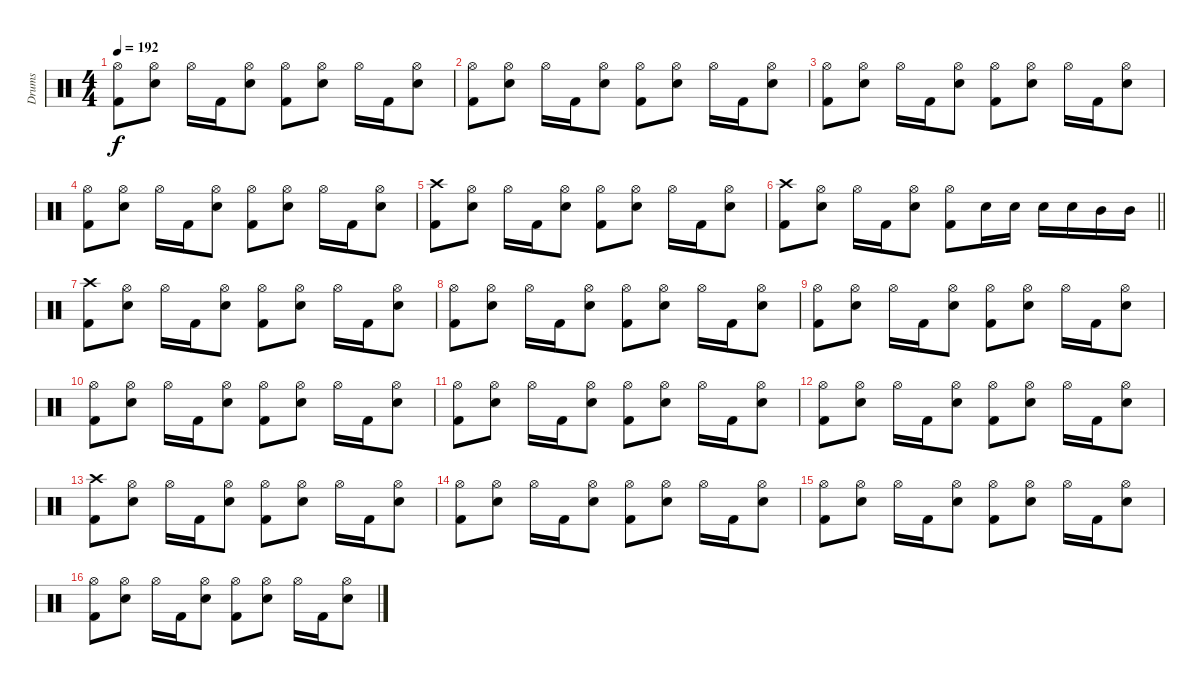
\track ("Drums" "Drums") {instrument percussion}
\staff {score}
\articulation defaults
\ts (4 4)
\tempo 192
\clef neutral
\ks c
("Hi-Hat (open)" "Kick (hit) 2").8{dy f} ("Hi-Hat (open)" "Snare (hit) 2").8 "Hi-Hat (open)".16 "Kick (hit) 2".16 ("Hi-Hat (open)" "Snare (hit) 2").8 ("Hi-Hat (open)" "Kick (hit) 2").8 ("Hi-Hat (open)" "Snare (hit) 2").8 "Hi-Hat (open)".16 "Kick (hit) 2".16 ("Hi-Hat (open)" "Snare (hit) 2").8 |
("Hi-Hat (open)" "Kick (hit) 2").8 ("Hi-Hat (open)" "Snare (hit) 2").8 "Hi-Hat (open)".16 "Kick (hit) 2".16 ("Hi-Hat (open)" "Snare (hit) 2").8 ("Hi-Hat (open)" "Kick (hit) 2").8 ("Hi-Hat (open)" "Snare (hit) 2").8 "Hi-Hat (open)".16 "Kick (hit) 2".16 ("Hi-Hat (open)" "Snare (hit) 2").8 |
("Hi-Hat (open)" "Kick (hit) 2").8 ("Hi-Hat (open)" "Snare (hit) 2").8 "Hi-Hat (open)".16 "Kick (hit) 2".16 ("Hi-Hat (open)" "Snare (hit) 2").8 ("Hi-Hat (open)" "Kick (hit) 2").8 ("Hi-Hat (open)" "Snare (hit) 2").8 "Hi-Hat (open)".16 "Kick (hit) 2".16 ("Hi-Hat (open)" "Snare (hit) 2").8 |
("Hi-Hat (open)" "Kick (hit) 2").8 ("Hi-Hat (open)" "Snare (hit) 2").8 "Hi-Hat (open)".16 "Kick (hit) 2".16 ("Hi-Hat (open)" "Snare (hit) 2").8 ("Hi-Hat (open)" "Kick (hit) 2").8 ("Hi-Hat (open)" "Snare (hit) 2").8 "Hi-Hat (open)".16 "Kick (hit) 2".16 ("Hi-Hat (open)" "Snare (hit) 2").8 |
("Crash high (hit)" "Kick (hit) 2").8 ("Hi-Hat (open)" "Snare (hit) 2").8 "Hi-Hat (open)".16 "Kick (hit) 2".16 ("Hi-Hat (open)" "Snare (hit) 2").8 ("Hi-Hat (open)" "Kick (hit) 2").8 ("Hi-Hat (open)" "Snare (hit) 2").8 "Hi-Hat (open)".16 "Kick (hit) 2".16 ("Hi-Hat (open)" "Snare (hit) 2").8 |
\barLineRight lightlight
("Crash high (hit)" "Kick (hit) 2").8 ("Hi-Hat (open)" "Snare (hit) 2").8 "Hi-Hat (open)".16 "Kick (hit) 2".16 ("Hi-Hat (open)" "Snare (hit) 2").8 ("Hi-Hat (open)" "Kick (hit) 2").8 "Snare (hit) 2".16 "Snare (hit) 2".16 "Snare (hit) 2".16 "Snare (hit) 2".16 "Mid Tom (hit)".16 "Mid Tom (hit)".16 |
("Crash high (hit)" "Kick (hit) 2").8 ("Hi-Hat (open)" "Snare (hit) 2").8 "Hi-Hat (open)".16 "Kick (hit) 2".16 ("Hi-Hat (open)" "Snare (hit) 2").8 ("Hi-Hat (open)" "Kick (hit) 2").8 ("Hi-Hat (open)" "Snare (hit) 2").8 "Hi-Hat (open)".16 "Kick (hit) 2".16 ("Hi-Hat (open)" "Snare (hit) 2").8 |
("Hi-Hat (open)" "Kick (hit) 2").8 ("Hi-Hat (open)" "Snare (hit) 2").8 "Hi-Hat (open)".16 "Kick (hit) 2".16 ("Hi-Hat (open)" "Snare (hit) 2").8 ("Hi-Hat (open)" "Kick (hit) 2").8 ("Hi-Hat (open)" "Snare (hit) 2").8 "Hi-Hat (open)".16 "Kick (hit) 2".16 ("Hi-Hat (open)" "Snare (hit) 2").8 |
("Hi-Hat (open)" "Kick (hit) 2").8 ("Hi-Hat (open)" "Snare (hit) 2").8 "Hi-Hat (open)".16 "Kick (hit) 2".16 ("Hi-Hat (open)" "Snare (hit) 2").8 ("Hi-Hat (open)" "Kick (hit) 2").8 ("Hi-Hat (open)" "Snare (hit) 2").8 "Hi-Hat (open)".16 "Kick (hit) 2".16 ("Hi-Hat (open)" "Snare (hit) 2").8 |
("Hi-Hat (open)" "Kick (hit) 2").8 ("Hi-Hat (open)" "Snare (hit) 2").8 "Hi-Hat (open)".16 "Kick (hit) 2".16 ("Hi-Hat (open)" "Snare (hit) 2").8 ("Hi-Hat (open)" "Kick (hit) 2").8 ("Hi-Hat (open)" "Snare (hit) 2").8 "Hi-Hat (open)".16 "Kick (hit) 2".16 ("Hi-Hat (open)" "Snare (hit) 2").8 |
("Hi-Hat (open)" "Kick (hit) 2").8 ("Hi-Hat (open)" "Snare (hit) 2").8 "Hi-Hat (open)".16 "Kick (hit) 2".16 ("Hi-Hat (open)" "Snare (hit) 2").8 ("Hi-Hat (open)" "Kick (hit) 2").8 ("Hi-Hat (open)" "Snare (hit) 2").8 "Hi-Hat (open)".16 "Kick (hit) 2".16 ("Hi-Hat (open)" "Snare (hit) 2").8 |
("Hi-Hat (open)" "Kick (hit) 2").8 ("Hi-Hat (open)" "Snare (hit) 2").8 "Hi-Hat (open)".16 "Kick (hit) 2".16 ("Hi-Hat (open)" "Snare (hit) 2").8 ("Hi-Hat (open)" "Kick (hit) 2").8 ("Hi-Hat (open)" "Snare (hit) 2").8 "Hi-Hat (open)".16 "Kick (hit) 2".16 ("Hi-Hat (open)" "Snare (hit) 2").8 |
("Crash high (hit)" "Kick (hit) 2").8 ("Hi-Hat (open)" "Snare (hit) 2").8 "Hi-Hat (open)".16 "Kick (hit) 2".16 ("Hi-Hat (open)" "Snare (hit) 2").8 ("Hi-Hat (open)" "Kick (hit) 2").8 ("Hi-Hat (open)" "Snare (hit) 2").8 "Hi-Hat (open)".16 "Kick (hit) 2".16 ("Hi-Hat (open)" "Snare (hit) 2").8 |
("Hi-Hat (open)" "Kick (hit) 2").8 ("Hi-Hat (open)" "Snare (hit) 2").8 "Hi-Hat (open)".16 "Kick (hit) 2".16 ("Hi-Hat (open)" "Snare (hit) 2").8 ("Hi-Hat (open)" "Kick (hit) 2").8 ("Hi-Hat (open)" "Snare (hit) 2").8 "Hi-Hat (open)".16 "Kick (hit) 2".16 ("Hi-Hat (open)" "Snare (hit) 2").8 |
("Hi-Hat (open)" "Kick (hit) 2").8 ("Hi-Hat (open)" "Snare (hit) 2").8 "Hi-Hat (open)".16 "Kick (hit) 2".16 ("Hi-Hat (open)" "Snare (hit) 2").8 ("Hi-Hat (open)" "Kick (hit) 2").8 ("Hi-Hat (open)" "Snare (hit) 2").8 "Hi-Hat (open)".16 "Kick (hit) 2".16 ("Hi-Hat (open)" "Snare (hit) 2").8 |
("Hi-Hat (open)" "Kick (hit) 2").8 ("Hi-Hat (open)" "Snare (hit) 2").8 "Hi-Hat (open)".16 "Kick (hit) 2".16 ("Hi-Hat (open)" "Snare (hit) 2").8 ("Hi-Hat (open)" "Kick (hit) 2").8 ("Hi-Hat (open)" "Snare (hit) 2").8 "Hi-Hat (open)".16 "Kick (hit) 2".16 ("Hi-Hat (open)" "Snare (hit) 2").8
